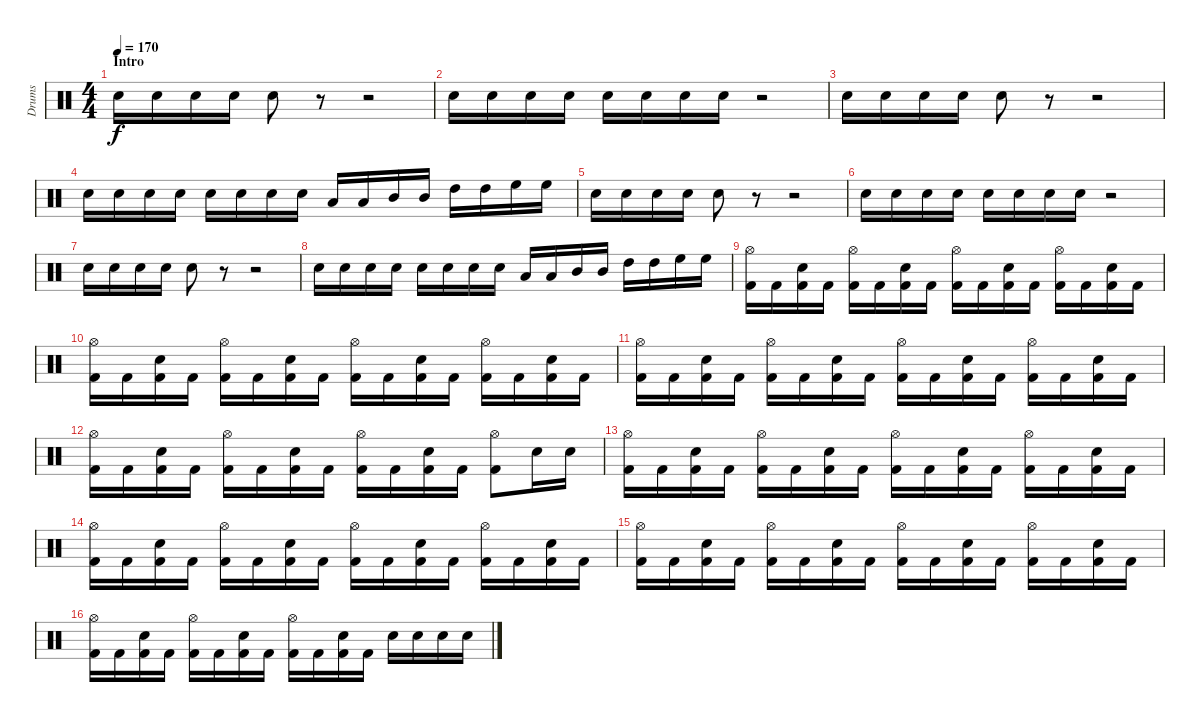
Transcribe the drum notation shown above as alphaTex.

\track ("Drums" "Drums") {instrument percussion}
\staff {score}
\articulation defaults
\ts (4 4)
\section ("" "Intro")
\tempo 170
\clef neutral
\ks c "Electric Snare (hit)".16{dy f} "Electric Snare (hit)".16 "Electric Snare (hit)".16 "Electric Snare (hit)".16 "Electric Snare (hit)".8
r.8 r.2 |
"Electric Snare (hit)".16 "Electric Snare (hit)".16 "Electric Snare (hit)".16 "Electric Snare (hit)".16 "Electric Snare (hit)".16 "Electric Snare (hit)".16 "Electric Snare (hit)".16 "Electric Snare (hit)".16 r.2 |
"Electric Snare (hit)".16 "Electric Snare (hit)".16 "Electric Snare (hit)".16 "Electric Snare (hit)".16 "Electric Snare (hit)".8 r.8 r.2 |
"Electric Snare (hit)".16 "Electric Snare (hit)".16 "Electric Snare (hit)".16 "Electric Snare (hit)".16 "Electric Snare (hit)".16 "Electric Snare (hit)".16 "Electric Snare (hit)".16 "Electric Snare (hit)".16 "Low Tom (hit)".16 "Low Tom (hit)".16 "Mid Tom (hit)".16 "Mid Tom (hit)".16 "High Tom (hit)".16 "High Tom (hit)".16 "High Floor Tom (hit)".16 "High Floor Tom (hit)".16 |
"Electric Snare (hit)".16 "Electric Snare (hit)".16 "Electric Snare (hit)".16 "Electric Snare (hit)".16 "Electric Snare (hit)".8 r.8 r.2 |
"Electric Snare (hit)".16 "Electric Snare (hit)".16 "Electric Snare (hit)".16 "Electric Snare (hit)".16 "Electric Snare (hit)".16 "Electric Snare (hit)".16 "Electric Snare (hit)".16 "Electric Snare (hit)".16 r.2 |
"Electric Snare (hit)".16 "Electric Snare (hit)".16 "Electric Snare (hit)".16 "Electric Snare (hit)".16 "Electric Snare (hit)".8 r.8 r.2 |
"Electric Snare (hit)".16 "Electric Snare (hit)".16 "Electric Snare (hit)".16 "Electric Snare (hit)".16 "Electric Snare (hit)".16 "Electric Snare (hit)".16 "Electric Snare (hit)".16 "Electric Snare (hit)".16 "Low Tom (hit)".16 "Low Tom (hit)".16 "Mid Tom (hit)".16 "Mid Tom (hit)".16 "High Tom (hit)".16 "High Tom (hit)".16 "High Floor Tom (hit)".16 "High Floor Tom (hit)".16 |
("Hi-Hat (open)" "Kick (hit) 2").16 "Kick (hit) 2".16 ("Electric Snare (hit)" "Kick (hit) 2").16 "Kick (hit) 2".16 ("Hi-Hat (open)" "Kick (hit) 2").16 "Kick (hit) 2".16 ("Electric Snare (hit)" "Kick (hit) 2").16 "Kick (hit) 2".16 ("Hi-Hat (open)" "Kick (hit) 2").16 "Kick (hit) 2".16 ("Electric Snare (hit)" "Kick (hit) 2").16 "Kick (hit) 2".16 ("Hi-Hat (open)" "Kick (hit) 2").16 "Kick (hit) 2".16 ("Electric Snare (hit)" "Kick (hit) 2").16 "Kick (hit) 2".16 |
("Hi-Hat (open)" "Kick (hit) 2").16 "Kick (hit) 2".16 ("Electric Snare (hit)" "Kick (hit) 2").16 "Kick (hit) 2".16 ("Hi-Hat (open)" "Kick (hit) 2").16 "Kick (hit) 2".16 ("Electric Snare (hit)" "Kick (hit) 2").16 "Kick (hit) 2".16 ("Hi-Hat (open)" "Kick (hit) 2").16 "Kick (hit) 2".16 ("Electric Snare (hit)" "Kick (hit) 2").16 "Kick (hit) 2".16 ("Hi-Hat (open)" "Kick (hit) 2").16 "Kick (hit) 2".16 ("Electric Snare (hit)" "Kick (hit) 2").16 "Kick (hit) 2".16 |
("Hi-Hat (open)" "Kick (hit) 2").16 "Kick (hit) 2".16 ("Electric Snare (hit)" "Kick (hit) 2").16 "Kick (hit) 2".16 ("Hi-Hat (open)" "Kick (hit) 2").16 "Kick (hit) 2".16 ("Electric Snare (hit)" "Kick (hit) 2").16 "Kick (hit) 2".16 ("Hi-Hat (open)" "Kick (hit) 2").16 "Kick (hit) 2".16 ("Electric Snare (hit)" "Kick (hit) 2").16 "Kick (hit) 2".16 ("Hi-Hat (open)" "Kick (hit) 2").16 "Kick (hit) 2".16 ("Electric Snare (hit)" "Kick (hit) 2").16 "Kick (hit) 2".16 |
("Hi-Hat (open)" "Kick (hit) 2").16 "Kick (hit) 2".16 ("Electric Snare (hit)" "Kick (hit) 2").16 "Kick (hit) 2".16 ("Hi-Hat (open)" "Kick (hit) 2").16 "Kick (hit) 2".16 ("Electric Snare (hit)" "Kick (hit) 2").16 "Kick (hit) 2".16 ("Hi-Hat (open)" "Kick (hit) 2").16 "Kick (hit) 2".16 ("Electric Snare (hit)" "Kick (hit) 2").16 "Kick (hit) 2".16 ("Hi-Hat (open)" "Kick (hit) 2").8 "Electric Snare (hit)".16 "Electric Snare (hit)".16 |
("Hi-Hat (open)" "Kick (hit) 2").16 "Kick (hit) 2".16 ("Electric Snare (hit)" "Kick (hit) 2").16 "Kick (hit) 2".16 ("Hi-Hat (open)" "Kick (hit) 2").16 "Kick (hit) 2".16 ("Electric Snare (hit)" "Kick (hit) 2").16 "Kick (hit) 2".16 ("Hi-Hat (open)" "Kick (hit) 2").16 "Kick (hit) 2".16 ("Electric Snare (hit)" "Kick (hit) 2").16 "Kick (hit) 2".16 ("Hi-Hat (open)" "Kick (hit) 2").16 "Kick (hit) 2".16 ("Electric Snare (hit)" "Kick (hit) 2").16 "Kick (hit) 2".16 |
("Hi-Hat (open)" "Kick (hit) 2").16 "Kick (hit) 2".16 ("Electric Snare (hit)" "Kick (hit) 2").16 "Kick (hit) 2".16 ("Hi-Hat (open)" "Kick (hit) 2").16 "Kick (hit) 2".16 ("Electric Snare (hit)" "Kick (hit) 2").16 "Kick (hit) 2".16 ("Hi-Hat (open)" "Kick (hit) 2").16 "Kick (hit) 2".16 ("Electric Snare (hit)" "Kick (hit) 2").16 "Kick (hit) 2".16 ("Hi-Hat (open)" "Kick (hit) 2").16 "Kick (hit) 2".16 ("Electric Snare (hit)" "Kick (hit) 2").16 "Kick (hit) 2".16 |
("Hi-Hat (open)" "Kick (hit) 2").16 "Kick (hit) 2".16 ("Electric Snare (hit)" "Kick (hit) 2").16 "Kick (hit) 2".16 ("Hi-Hat (open)" "Kick (hit) 2").16 "Kick (hit) 2".16 ("Electric Snare (hit)" "Kick (hit) 2").16 "Kick (hit) 2".16 ("Hi-Hat (open)" "Kick (hit) 2").16 "Kick (hit) 2".16 ("Electric Snare (hit)" "Kick (hit) 2").16 "Kick (hit) 2".16 ("Hi-Hat (open)" "Kick (hit) 2").16 "Kick (hit) 2".16 ("Electric Snare (hit)" "Kick (hit) 2").16 "Kick (hit) 2".16 |
("Hi-Hat (open)" "Kick (hit) 2").16 "Kick (hit) 2".16 ("Electric Snare (hit)" "Kick (hit) 2").16 "Kick (hit) 2".16 ("Hi-Hat (open)" "Kick (hit) 2").16 "Kick (hit) 2".16 ("Electric Snare (hit)" "Kick (hit) 2").16 "Kick (hit) 2".16 ("Hi-Hat (open)" "Kick (hit) 2").16 "Kick (hit) 2".16 ("Electric Snare (hit)" "Kick (hit) 2").16 "Kick (hit) 2".16 "Electric Snare (hit)".16 "Electric Snare (hit)".16 "Electric Snare (hit)".16 "Electric Snare (hit)".16
